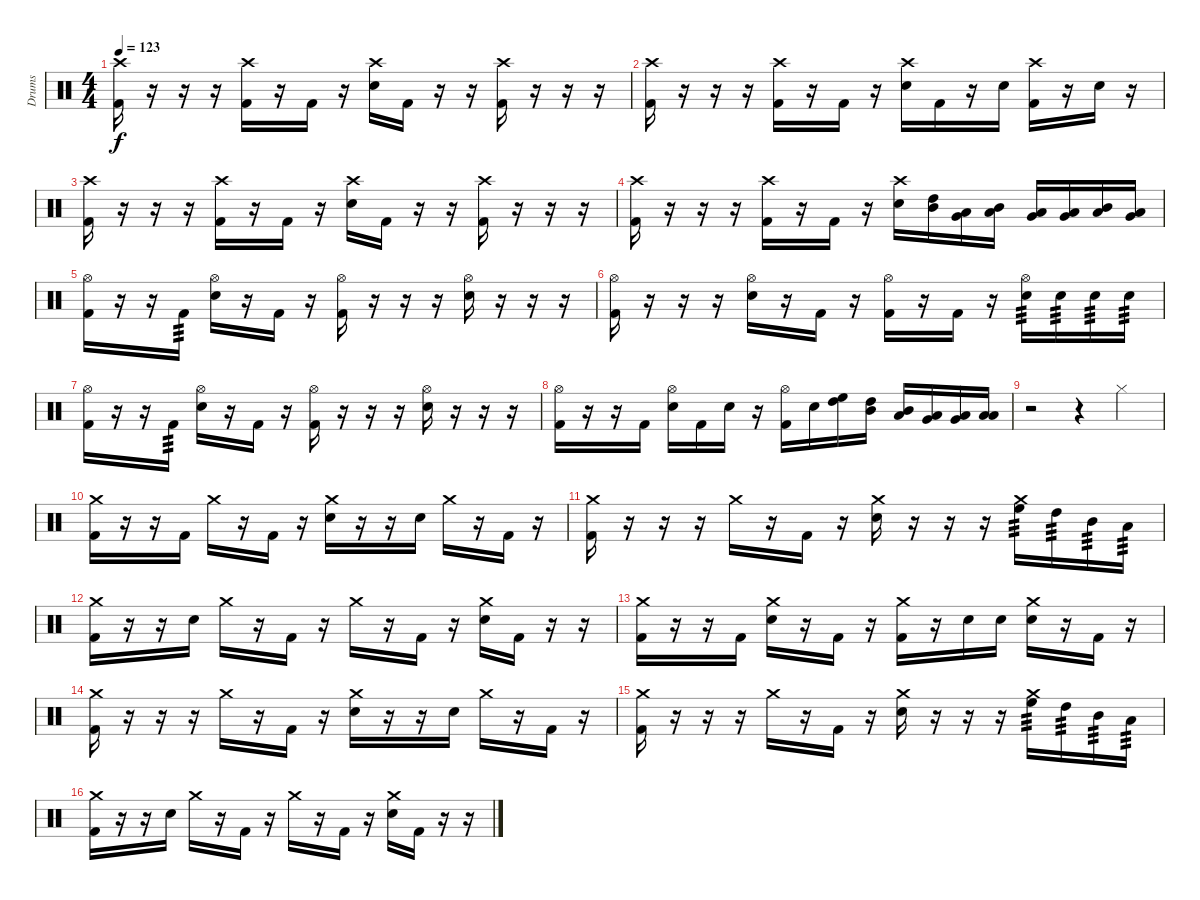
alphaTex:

\track ("Drums" "Drums") {instrument percussion}
\staff {score}
\articulation defaults
\ts (4 4)
\tempo 123
\clef neutral
\ks c
("Crash high (hit)" "Kick (hit) 2").16{dy f} r.16 r.16 r.16 ("Crash high (hit)" "Kick (hit) 2").16 r.16 "Kick (hit) 2".16 r.16 ("Crash high (hit)" "Electric Snare (hit)").16 "Kick (hit) 2".16 r.16 r.16 ("Crash high (hit)" "Kick (hit) 2").16 r.16 r.16 r.16 |
("Crash high (hit)" "Kick (hit) 2").16 r.16 r.16 r.16 ("Crash high (hit)" "Kick (hit) 2").16 r.16 "Kick (hit) 2".16 r.16 ("Crash high (hit)" "Electric Snare (hit)").16 "Kick (hit) 2".16 r.16 "Electric Snare (hit)".16 ("Crash high (hit)" "Kick (hit) 2").16 r.16 "Electric Snare (hit)".16 r.16 |
("Crash high (hit)" "Kick (hit) 2").16 r.16 r.16 r.16 ("Crash high (hit)" "Kick (hit) 2").16 r.16 "Kick (hit) 2".16 r.16 ("Crash high (hit)" "Electric Snare (hit)").16 "Kick (hit) 2".16 r.16 r.16 ("Crash high (hit)" "Kick (hit) 2").16 r.16 r.16 r.16 |
("Crash high (hit)" "Kick (hit) 2").16 r.16 r.16 r.16 ("Crash high (hit)" "Kick (hit) 2").16 r.16 "Kick (hit) 2".16 r.16 ("Crash high (hit)" "Snare (hit) 2").16 ("High Tom (hit)" "Mid Tom (hit)").16 ("Low Tom (hit)" "Very Low Tom (hit)").16 ("Mid Tom (hit)" "Low Tom (hit)").16 ("Very Low Tom (hit)" "Low Floor Tom (hit)").16 ("Low Tom (hit)" "Very Low Tom (hit)").16 ("Low Floor Tom (hit)" "Mid Tom (hit)").16 ("Low Tom (hit)" "Very Low Tom (hit)").16 |
("Hi-Hat (open)" "Kick (hit) 2").16 r.16 r.16 "Kick (hit) 2".16{tp 3} ("Hi-Hat (open)" "Electric Snare (hit)").16 r.16 "Kick (hit) 2".16 r.16 ("Hi-Hat (open)" "Kick (hit) 2").16 r.16 r.16 r.16 ("Hi-Hat (open)" "Electric Snare (hit)").16 r.16 r.16 r.16 |
("Hi-Hat (open)" "Kick (hit) 2").16 r.16 r.16 r.16 ("Hi-Hat (open)" "Electric Snare (hit)").16 r.16 "Kick (hit) 2".16 r.16 ("Hi-Hat (open)" "Kick (hit) 2").16 r.16 "Kick (hit) 2".16 r.16 ("Hi-Hat (open)" "Electric Snare (hit)").16{tp 3} "Electric Snare (hit)".16{tp 3} "Electric Snare (hit)".16{tp 3} "Electric Snare (hit)".16{tp 3} |
("Hi-Hat (open)" "Kick (hit) 2").16 r.16 r.16 "Kick (hit) 2".16{tp 3} ("Hi-Hat (open)" "Electric Snare (hit)").16 r.16 "Kick (hit) 2".16 r.16 ("Hi-Hat (open)" "Kick (hit) 2").16 r.16 r.16 r.16 ("Hi-Hat (open)" "Electric Snare (hit)").16 r.16 r.16 r.16 |
("Hi-Hat (open)" "Kick (hit) 2").16 r.16 r.16 "Kick (hit) 2".16 ("Hi-Hat (open)" "Electric Snare (hit)").16 "Kick (hit) 2".16 "Electric Snare (hit)".16 r.16 ("Hi-Hat (open)" "Kick (hit) 2").16 "Electric Snare (hit)".16 ("High Floor Tom (hit)" "High Tom (hit)").16 ("High Tom (hit)" "Mid Tom (hit)").16 ("Mid Tom (hit)" "Low Tom (hit)").16 ("Low Tom (hit)" "Very Low Tom (hit)").16 ("Very Low Tom (hit)" "Low Floor Tom (hit)").16 ("Low Floor Tom (hit)" "Low Tom (hit)").16 |
r.2 r.4 "Hi-Hat (closed)".4 |
("Crash medium (hit)" "Kick (hit) 2").16 r.16 r.16 "Kick (hit) 2".16 "Crash medium (hit)".16 r.16 "Kick (hit) 2".16 r.16 ("Crash medium (hit)" "Electric Snare (hit)").16 r.16 r.16 "Electric Snare (hit)".16 "Crash medium (hit)".16 r.16 "Kick (hit) 2".16 r.16 |
("Crash medium (hit)" "Kick (hit) 2").16 r.16 r.16 r.16 "Crash medium (hit)".16 r.16 "Kick (hit) 2".16 r.16 ("Crash medium (hit)" "Electric Snare (hit)").16 r.16 r.16 r.16 ("Crash medium (hit)" "High Floor Tom (hit)").16{tp 3} "High Tom (hit)".16{tp 3} "Mid Tom (hit)".16{tp 3} "Low Tom (hit)".16{tp 3} |
("Crash medium (hit)" "Kick (hit) 2").16 r.16 r.16 "Electric Snare (hit)".16 "Crash medium (hit)".16 r.16 "Kick (hit) 2".16 r.16 "Crash medium (hit)".16 r.16 "Kick (hit) 2".16 r.16 ("Crash medium (hit)" "Electric Snare (hit)").16 "Kick (hit) 2".16 r.16 r.16 |
("Crash medium (hit)" "Kick (hit) 2").16 r.16 r.16 "Kick (hit) 2".16 ("Crash medium (hit)" "Electric Snare (hit)").16 r.16 "Kick (hit) 2".16 r.16 ("Crash medium (hit)" "Kick (hit) 2").16 r.16 "Electric Snare (hit)".16 "Electric Snare (hit)".16 ("Crash medium (hit)" "Electric Snare (hit)").16 r.16 "Kick (hit) 2".16 r.16 |
("Crash medium (hit)" "Kick (hit) 2").16 r.16 r.16 r.16 "Crash medium (hit)".16 r.16 "Kick (hit) 2".16 r.16 ("Crash medium (hit)" "Electric Snare (hit)").16 r.16 r.16 "Electric Snare (hit)".16 "Crash medium (hit)".16 r.16 "Kick (hit) 2".16 r.16 |
("Crash medium (hit)" "Kick (hit) 2").16 r.16 r.16 r.16 "Crash medium (hit)".16 r.16 "Kick (hit) 2".16 r.16 ("Crash medium (hit)" "Electric Snare (hit)").16 r.16 r.16 r.16 ("Crash medium (hit)" "High Floor Tom (hit)").16{tp 3} "High Tom (hit)".16{tp 3} "Mid Tom (hit)".16{tp 3} "Low Tom (hit)".16{tp 3} |
("Crash medium (hit)" "Kick (hit) 2").16 r.16 r.16 "Electric Snare (hit)".16 "Crash medium (hit)".16 r.16 "Kick (hit) 2".16 r.16 "Crash medium (hit)".16 r.16 "Kick (hit) 2".16 r.16 ("Crash medium (hit)" "Electric Snare (hit)").16 "Kick (hit) 2".16 r.16 r.16
